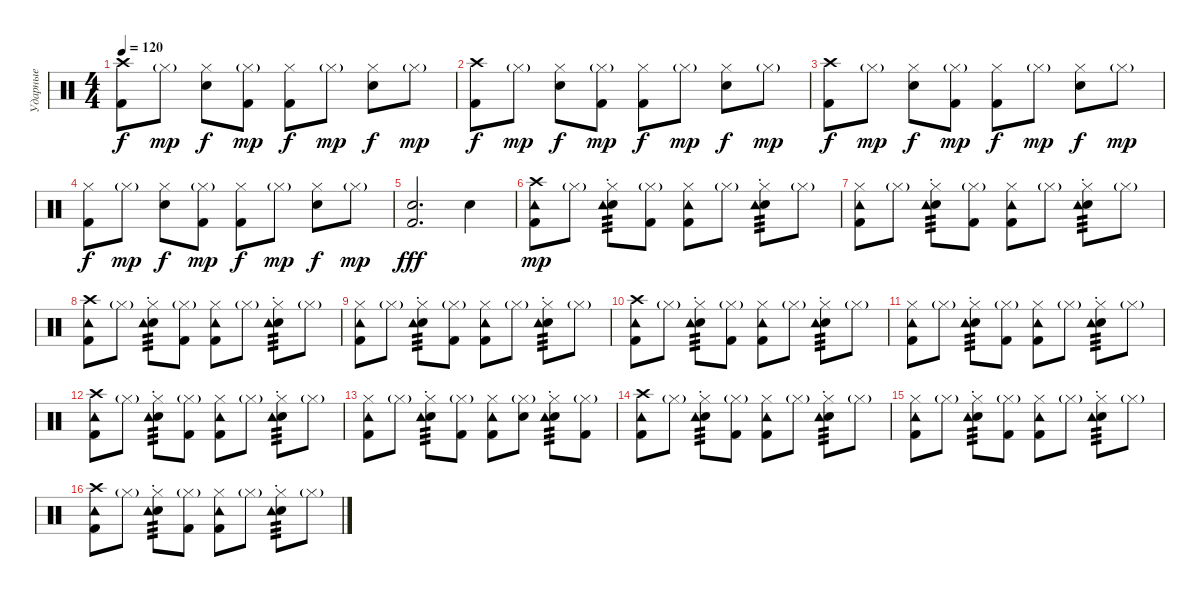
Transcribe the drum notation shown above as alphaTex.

\track ("Ударные" "Ударные") {instrument percussion}
\staff {score}
\articulation defaults
\ts (4 4)
\tempo 120
\clef neutral
\ks c
("Kick (hit) 2" "Crash high (hit)").8{dy f} "Hi-Hat (closed)"{g}.8{dy mp} ("Electric Snare (hit)" "Hi-Hat (closed)").8{dy f} ("Kick (hit) 2" "Hi-Hat (closed)"{g}).8{dy mp} ("Kick (hit) 2" "Hi-Hat (closed)").8{dy f} "Hi-Hat (closed)"{g}.8{dy mp} ("Electric Snare (hit)" "Hi-Hat (closed)").8{dy f} "Hi-Hat (closed)"{g}.8{dy mp} |
("Kick (hit) 2" "Crash high (hit)").8{dy f} "Hi-Hat (closed)"{g}.8{dy mp} ("Electric Snare (hit)" "Hi-Hat (closed)").8{dy f} ("Kick (hit) 2" "Hi-Hat (closed)"{g}).8{dy mp} ("Kick (hit) 2" "Hi-Hat (closed)").8{dy f} "Hi-Hat (closed)"{g}.8{dy mp} ("Electric Snare (hit)" "Hi-Hat (closed)").8{dy f} "Hi-Hat (closed)"{g}.8{dy mp} |
("Kick (hit) 2" "Crash high (hit)").8{dy f} "Hi-Hat (closed)"{g}.8{dy mp} ("Electric Snare (hit)" "Hi-Hat (closed)").8{dy f} ("Kick (hit) 2" "Hi-Hat (closed)"{g}).8{dy mp} ("Kick (hit) 2" "Hi-Hat (closed)").8{dy f} "Hi-Hat (closed)"{g}.8{dy mp} ("Electric Snare (hit)" "Hi-Hat (closed)").8{dy f} "Hi-Hat (closed)"{g}.8{dy mp} |
("Kick (hit) 2" "Hi-Hat (closed)").8{dy f} "Hi-Hat (closed)"{g}.8{dy mp} ("Electric Snare (hit)" "Hi-Hat (closed)").8{dy f} ("Kick (hit) 2" "Hi-Hat (closed)"{g}).8{dy mp} ("Kick (hit) 2" "Hi-Hat (closed)").8{dy f} "Hi-Hat (closed)"{g}.8{dy mp} ("Electric Snare (hit)" "Hi-Hat (closed)").8{dy f} "Hi-Hat (closed)"{g}.8{dy mp} |
("Electric Snare (hit)" "Kick (hit) 2").2{d dy fff} "Electric Snare (hit)".4 |
("Kick (hit) 2" "Crash high (hit)" "Tambourine (hit)").8{dy mp} "Hi-Hat (closed)"{g}.8 ("Electric Snare (hit)" "Hi-Hat (closed)" "Tambourine (hit)"{st}).8{tp 3} ("Kick (hit) 2" "Hi-Hat (closed)"{g}).8 ("Kick (hit) 2" "Hi-Hat (closed)" "Tambourine (hit)").8 "Hi-Hat (closed)"{g}.8 ("Electric Snare (hit)" "Hi-Hat (closed)" "Tambourine (hit)"{st}).8{tp 3} "Hi-Hat (closed)"{g}.8 |
("Kick (hit) 2" "Hi-Hat (closed)" "Tambourine (hit)").8 "Hi-Hat (closed)"{g}.8 ("Electric Snare (hit)" "Hi-Hat (closed)" "Tambourine (hit)"{st}).8{tp 3} ("Kick (hit) 2" "Hi-Hat (closed)"{g}).8 ("Kick (hit) 2" "Hi-Hat (closed)" "Tambourine (hit)").8 "Hi-Hat (closed)"{g}.8 ("Electric Snare (hit)" "Hi-Hat (closed)" "Tambourine (hit)"{st}).8{tp 3} "Hi-Hat (closed)"{g}.8 |
("Kick (hit) 2" "Crash high (hit)" "Tambourine (hit)").8 "Hi-Hat (closed)"{g}.8 ("Electric Snare (hit)" "Hi-Hat (closed)" "Tambourine (hit)"{st}).8{tp 3} ("Kick (hit) 2" "Hi-Hat (closed)"{g}).8 ("Kick (hit) 2" "Hi-Hat (closed)" "Tambourine (hit)").8 "Hi-Hat (closed)"{g}.8 ("Electric Snare (hit)" "Hi-Hat (closed)" "Tambourine (hit)"{st}).8{tp 3} "Hi-Hat (closed)"{g}.8 |
("Kick (hit) 2" "Hi-Hat (closed)" "Tambourine (hit)").8 "Hi-Hat (closed)"{g}.8 ("Electric Snare (hit)" "Hi-Hat (closed)" "Tambourine (hit)"{st}).8{tp 3} ("Kick (hit) 2" "Hi-Hat (closed)"{g}).8 ("Kick (hit) 2" "Hi-Hat (closed)" "Tambourine (hit)").8 "Hi-Hat (closed)"{g}.8 ("Electric Snare (hit)" "Hi-Hat (closed)" "Tambourine (hit)"{st}).8{tp 3} "Hi-Hat (closed)"{g}.8 |
("Kick (hit) 2" "Crash high (hit)" "Tambourine (hit)").8 "Hi-Hat (closed)"{g}.8 ("Electric Snare (hit)" "Hi-Hat (closed)" "Tambourine (hit)"{st}).8{tp 3} ("Kick (hit) 2" "Hi-Hat (closed)"{g}).8 ("Kick (hit) 2" "Hi-Hat (closed)" "Tambourine (hit)").8 "Hi-Hat (closed)"{g}.8 ("Electric Snare (hit)" "Hi-Hat (closed)" "Tambourine (hit)"{st}).8{tp 3} "Hi-Hat (closed)"{g}.8 |
("Kick (hit) 2" "Hi-Hat (closed)" "Tambourine (hit)").8 "Hi-Hat (closed)"{g}.8 ("Electric Snare (hit)" "Hi-Hat (closed)" "Tambourine (hit)"{st}).8{tp 3} ("Kick (hit) 2" "Hi-Hat (closed)"{g}).8 ("Kick (hit) 2" "Hi-Hat (closed)" "Tambourine (hit)").8 "Hi-Hat (closed)"{g}.8 ("Electric Snare (hit)" "Hi-Hat (closed)" "Tambourine (hit)"{st}).8{tp 3} "Hi-Hat (closed)"{g}.8 |
("Kick (hit) 2" "Crash high (hit)" "Tambourine (hit)").8 "Hi-Hat (closed)"{g}.8 ("Electric Snare (hit)" "Hi-Hat (closed)" "Tambourine (hit)"{st}).8{tp 3} ("Kick (hit) 2" "Hi-Hat (closed)"{g}).8 ("Kick (hit) 2" "Hi-Hat (closed)" "Tambourine (hit)").8 "Hi-Hat (closed)"{g}.8 ("Electric Snare (hit)" "Hi-Hat (closed)" "Tambourine (hit)"{st}).8{tp 3} "Hi-Hat (closed)"{g}.8 |
("Kick (hit) 2" "Hi-Hat (closed)" "Tambourine (hit)").8 "Hi-Hat (closed)"{g}.8 ("Electric Snare (hit)" "Hi-Hat (closed)" "Tambourine (hit)"{st}).8{tp 3} ("Kick (hit) 2" "Hi-Hat (closed)"{g}).8 ("Kick (hit) 2" "Hi-Hat (closed)" "Tambourine (hit)").8 ("Electric Snare (hit)" "Hi-Hat (closed)"{g}).8 ("Electric Snare (hit)" "Hi-Hat (closed)" "Tambourine (hit)"{st}).8{tp 3} ("Kick (hit) 2" "Hi-Hat (closed)"{g}).8 |
("Kick (hit) 2" "Crash high (hit)" "Tambourine (hit)").8 "Hi-Hat (closed)"{g}.8 ("Electric Snare (hit)" "Hi-Hat (closed)" "Tambourine (hit)"{st}).8{tp 3} ("Kick (hit) 2" "Hi-Hat (closed)"{g}).8 ("Kick (hit) 2" "Hi-Hat (closed)" "Tambourine (hit)").8 "Hi-Hat (closed)"{g}.8 ("Electric Snare (hit)" "Hi-Hat (closed)" "Tambourine (hit)"{st}).8{tp 3} "Hi-Hat (closed)"{g}.8 |
("Kick (hit) 2" "Hi-Hat (closed)" "Tambourine (hit)").8 "Hi-Hat (closed)"{g}.8 ("Electric Snare (hit)" "Hi-Hat (closed)" "Tambourine (hit)"{st}).8{tp 3} ("Kick (hit) 2" "Hi-Hat (closed)"{g}).8 ("Kick (hit) 2" "Hi-Hat (closed)" "Tambourine (hit)").8 "Hi-Hat (closed)"{g}.8 ("Electric Snare (hit)" "Hi-Hat (closed)" "Tambourine (hit)"{st}).8{tp 3} "Hi-Hat (closed)"{g}.8 |
("Kick (hit) 2" "Crash high (hit)" "Tambourine (hit)").8 "Hi-Hat (closed)"{g}.8 ("Electric Snare (hit)" "Hi-Hat (closed)" "Tambourine (hit)"{st}).8{tp 3} ("Kick (hit) 2" "Hi-Hat (closed)"{g}).8 ("Kick (hit) 2" "Hi-Hat (closed)" "Tambourine (hit)").8 "Hi-Hat (closed)"{g}.8 ("Electric Snare (hit)" "Hi-Hat (closed)" "Tambourine (hit)"{st}).8{tp 3} "Hi-Hat (closed)"{g}.8
